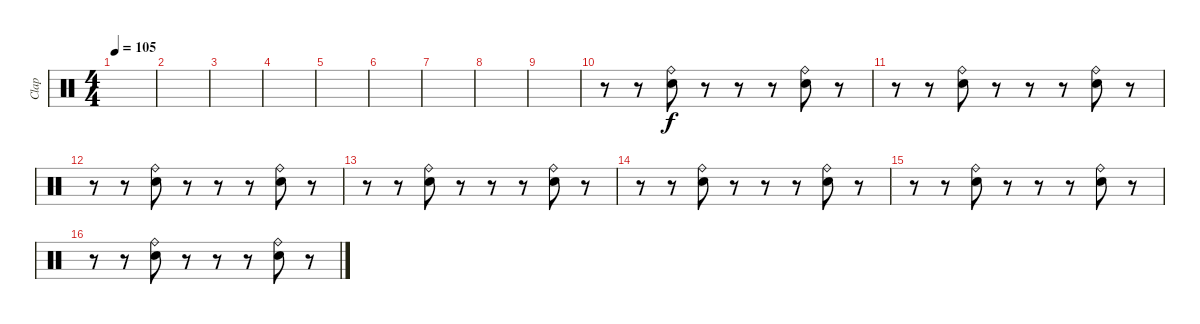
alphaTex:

\track ("Clap" "Clap") {instrument percussion}
\staff {score}
\articulation defaults
\ts (4 4)
\tempo 105
\clef neutral
\ks c
|
|
|
|
|
|
|
|
|
r.8 r.8 ("Hand Clap (hit)" "Ride (bell)").8 r.8 r.8 r.8 ("Hand Clap (hit)" "Ride (bell)").8 r.8 |
r.8 r.8 ("Hand Clap (hit)" "Ride (bell)").8 r.8 r.8 r.8 ("Hand Clap (hit)" "Ride (bell)").8 r.8 |
r.8 r.8 ("Hand Clap (hit)" "Ride (bell)").8 r.8 r.8 r.8 ("Hand Clap (hit)" "Ride (bell)").8 r.8 |
r.8 r.8 ("Hand Clap (hit)" "Ride (bell)").8 r.8 r.8 r.8 ("Hand Clap (hit)" "Ride (bell)").8 r.8 |
r.8 r.8 ("Hand Clap (hit)" "Ride (bell)").8 r.8 r.8 r.8 ("Hand Clap (hit)" "Ride (bell)").8 r.8 |
r.8 r.8 ("Hand Clap (hit)" "Ride (bell)").8 r.8 r.8 r.8 ("Hand Clap (hit)" "Ride (bell)").8 r.8 |
r.8 r.8 ("Hand Clap (hit)" "Ride (bell)").8 r.8 r.8 r.8 ("Hand Clap (hit)" "Ride (bell)").8 r.8
